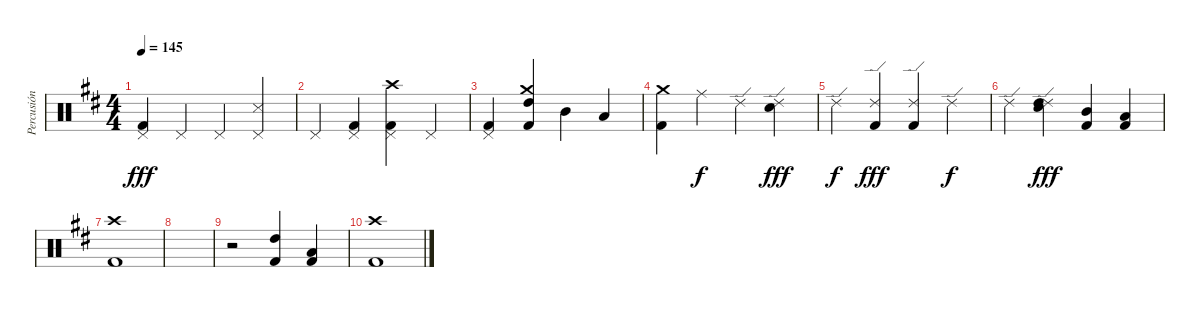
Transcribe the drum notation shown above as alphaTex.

\track ("Percusión" "Percusión") {instrument percussion}
\staff {score}
\articulation defaults
\ts (4 4)
\tempo 145
\clef neutral
\ks d
("Pedal Hi-Hat (hit)" "Kick (hit) 2").4{dy fff} "Pedal Hi-Hat (hit)".4 "Pedal Hi-Hat (hit)".4 ("Pedal Hi-Hat (hit)" "Snare (side stick) 3").4 |
"Pedal Hi-Hat (hit)".4 ("Pedal Hi-Hat (hit)" "Kick (hit) 2").4 ("Crash high (hit)" "Pedal Hi-Hat (hit)" "Kick (hit) 2").4 "Pedal Hi-Hat (hit)".4 |
("Pedal Hi-Hat (hit)" "Kick (hit) 2").4 ("Crash medium (hit)" "High Tom (hit)" "Kick (hit) 2").4 "Mid Tom (hit)".4 "Low Tom (hit)".4 |
("Crash medium (hit)" "Kick (hit) 2").4 "Ride (middle)".4{dy f} "Ride (edge) 2".4 ("Ride (edge) 2" "Electric Snare (hit)").4{dy fff} |
"Ride (edge) 2".4{dy f} ("Ride (edge) 2" "Kick (hit) 2").4{dy fff} ("Ride (edge) 2" "Kick (hit) 2").4 "Ride (edge) 2".4{dy f} |
"Ride (edge) 2".4 ("Ride (edge) 2" "Electric Snare (hit)" "High Tom (hit)").4{dy fff} ("Mid Tom (hit)" "Kick (hit) 2").4 ("Low Tom (hit)" "Kick (hit) 2").4 |
("Crash high (hit)" "Kick (hit) 2").1 |
|
r.2 ("High Tom (hit)" "Kick (hit) 2").4 ("Low Tom (hit)" "Kick (hit) 2").4 |
("Crash high (hit)" "Kick (hit) 2").1
